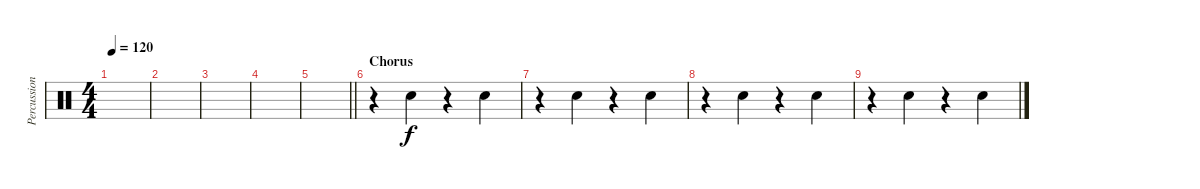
\track ("Percussions" "Percussion") {instrument percussion}
\staff {score}
\articulation defaults
\ts (4 4)
\tempo 120
\clef neutral
\ks c
|
|
|
|
\barLineRight lightlight
|
\section ("" "Chorus")
r.4 "Electric Snare (hit)".4 r.4 "Electric Snare (hit)".4 |
r.4 "Electric Snare (hit)".4 r.4 "Electric Snare (hit)".4 |
r.4 "Electric Snare (hit)".4 r.4 "Electric Snare (hit)".4 |
r.4 "Electric Snare (hit)".4 r.4 "Electric Snare (hit)".4
